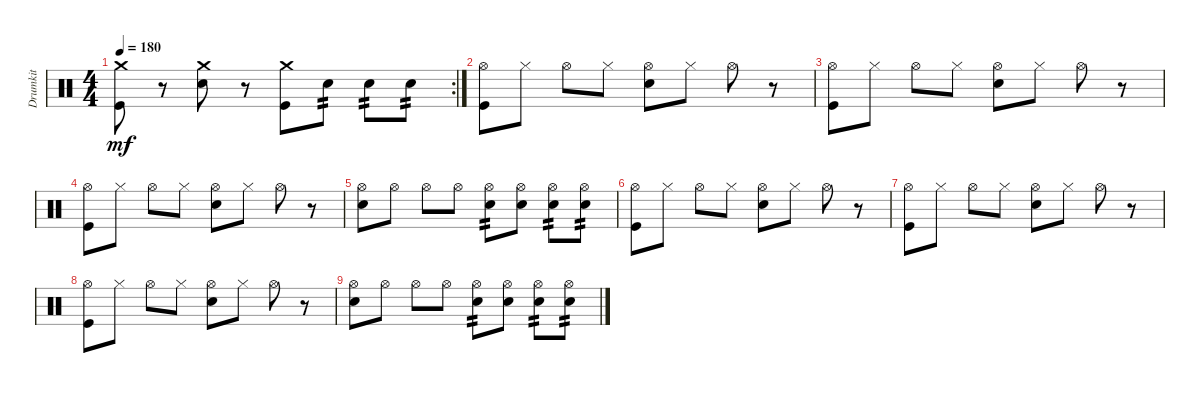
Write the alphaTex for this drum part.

\track ("Drumkit" "Drumkit") {instrument percussion}
\staff {score}
\articulation defaults
\rc 2
\ts (4 4)
\tempo 180
\clef neutral
\ks c
("Kick (hit)" "Crash medium (hit)").8{dy mf} r.8 ("Snare (hit) 2" "Crash medium (hit)").8 r.8 ("Kick (hit)" "Crash medium (hit)").8 "Snare (hit) 2".8{tp 2} "Snare (hit) 2".8{tp 2} "Snare (hit) 2".8{tp 2} |
("Kick (hit)" "Hi-Hat (open)").8 "Hi-Hat (closed)".8 "Hi-Hat (open)".8 "Hi-Hat (closed)".8 ("Snare (hit) 2" "Hi-Hat (open)").8 "Hi-Hat (closed)".8 "Hi-Hat (open)".8 r.8 |
("Kick (hit)" "Hi-Hat (open)").8 "Hi-Hat (closed)".8 "Hi-Hat (open)".8 "Hi-Hat (closed)".8 ("Snare (hit) 2" "Hi-Hat (open)").8 "Hi-Hat (closed)".8 "Hi-Hat (open)".8 r.8 |
("Kick (hit)" "Hi-Hat (open)").8 "Hi-Hat (closed)".8 "Hi-Hat (open)".8 "Hi-Hat (closed)".8 ("Snare (hit) 2" "Hi-Hat (open)").8 "Hi-Hat (closed)".8 "Hi-Hat (open)".8 r.8 |
("Snare (hit) 2" "Hi-Hat (open)").8 "Hi-Hat (open)".8 "Hi-Hat (open)".8 "Hi-Hat (open)".8 ("Snare (hit) 2" "Hi-Hat (open)").8{tp 2} ("Hi-Hat (open)" "Snare (hit) 2").8 ("Hi-Hat (open)" "Snare (hit) 2").8{tp 2} ("Hi-Hat (open)" "Snare (hit) 2").8{tp 2} |
("Kick (hit)" "Hi-Hat (open)").8 "Hi-Hat (closed)".8 "Hi-Hat (open)".8 "Hi-Hat (closed)".8 ("Snare (hit) 2" "Hi-Hat (open)").8 "Hi-Hat (closed)".8 "Hi-Hat (open)".8 r.8 |
("Kick (hit)" "Hi-Hat (open)").8 "Hi-Hat (closed)".8 "Hi-Hat (open)".8 "Hi-Hat (closed)".8 ("Snare (hit) 2" "Hi-Hat (open)").8 "Hi-Hat (closed)".8 "Hi-Hat (open)".8 r.8 |
("Kick (hit)" "Hi-Hat (open)").8 "Hi-Hat (closed)".8 "Hi-Hat (open)".8 "Hi-Hat (closed)".8 ("Snare (hit) 2" "Hi-Hat (open)").8 "Hi-Hat (closed)".8 "Hi-Hat (open)".8 r.8 |
("Snare (hit) 2" "Hi-Hat (open)").8 "Hi-Hat (open)".8 "Hi-Hat (open)".8 "Hi-Hat (open)".8 ("Snare (hit) 2" "Hi-Hat (open)").8{tp 2} ("Hi-Hat (open)" "Snare (hit) 2").8 ("Hi-Hat (open)" "Snare (hit) 2").8{tp 2} ("Hi-Hat (open)" "Snare (hit) 2").8{tp 2}
